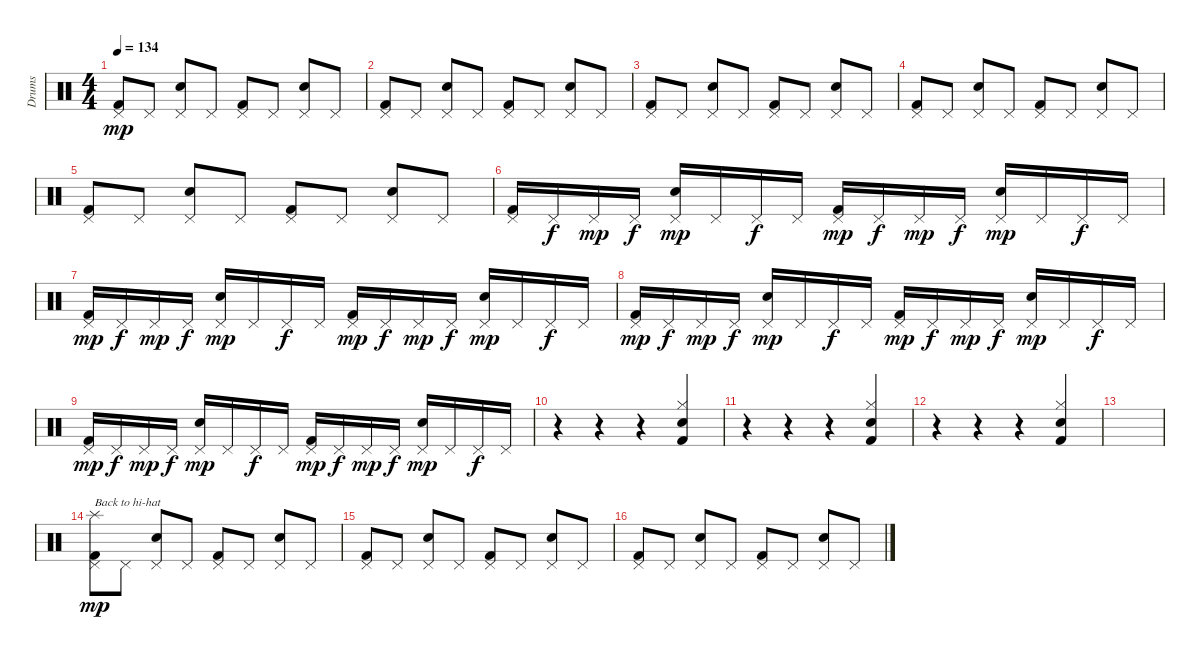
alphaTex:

\track ("Drums" "Drums") {instrument percussion}
\staff {score}
\articulation defaults
\ts (4 4)
\tempo 134
\clef neutral
\ks c
("Pedal Hi-Hat (hit)" "Kick (hit) 2").8{dy mp} "Pedal Hi-Hat (hit)".8 ("Pedal Hi-Hat (hit)" "Electric Snare (hit)").8 "Pedal Hi-Hat (hit)".8 ("Pedal Hi-Hat (hit)" "Kick (hit) 2").8 "Pedal Hi-Hat (hit)".8 ("Pedal Hi-Hat (hit)" "Electric Snare (hit)").8 "Pedal Hi-Hat (hit)".8 |
("Pedal Hi-Hat (hit)" "Kick (hit) 2").8 "Pedal Hi-Hat (hit)".8 ("Pedal Hi-Hat (hit)" "Electric Snare (hit)").8 "Pedal Hi-Hat (hit)".8 ("Pedal Hi-Hat (hit)" "Kick (hit) 2").8 "Pedal Hi-Hat (hit)".8 ("Pedal Hi-Hat (hit)" "Electric Snare (hit)").8 "Pedal Hi-Hat (hit)".8 |
("Pedal Hi-Hat (hit)" "Kick (hit) 2").8 "Pedal Hi-Hat (hit)".8 ("Pedal Hi-Hat (hit)" "Electric Snare (hit)").8 "Pedal Hi-Hat (hit)".8 ("Pedal Hi-Hat (hit)" "Kick (hit) 2").8 "Pedal Hi-Hat (hit)".8 ("Pedal Hi-Hat (hit)" "Electric Snare (hit)").8 "Pedal Hi-Hat (hit)".8 |
("Pedal Hi-Hat (hit)" "Kick (hit) 2").8 "Pedal Hi-Hat (hit)".8 ("Pedal Hi-Hat (hit)" "Electric Snare (hit)").8 "Pedal Hi-Hat (hit)".8 ("Pedal Hi-Hat (hit)" "Kick (hit) 2").8 "Pedal Hi-Hat (hit)".8 ("Pedal Hi-Hat (hit)" "Electric Snare (hit)").8 "Pedal Hi-Hat (hit)".8 |
("Pedal Hi-Hat (hit)" "Kick (hit) 2").8 "Pedal Hi-Hat (hit)".8 ("Pedal Hi-Hat (hit)" "Electric Snare (hit)").8 "Pedal Hi-Hat (hit)".8 ("Pedal Hi-Hat (hit)" "Kick (hit) 2").8 "Pedal Hi-Hat (hit)".8 ("Pedal Hi-Hat (hit)" "Electric Snare (hit)").8 "Pedal Hi-Hat (hit)".8 |
("Pedal Hi-Hat (hit)" "Kick (hit) 2").16 "Pedal Hi-Hat (hit)".16{dy f} "Pedal Hi-Hat (hit)".16{dy mp} "Pedal Hi-Hat (hit)".16{dy f} ("Pedal Hi-Hat (hit)" "Electric Snare (hit)").16{dy mp} "Pedal Hi-Hat (hit)".16 "Pedal Hi-Hat (hit)".16{dy f} "Pedal Hi-Hat (hit)".16 ("Pedal Hi-Hat (hit)" "Kick (hit) 2").16{dy mp} "Pedal Hi-Hat (hit)".16{dy f} "Pedal Hi-Hat (hit)".16{dy mp} "Pedal Hi-Hat (hit)".16{dy f} ("Pedal Hi-Hat (hit)" "Electric Snare (hit)").16{dy mp} "Pedal Hi-Hat (hit)".16 "Pedal Hi-Hat (hit)".16{dy f} "Pedal Hi-Hat (hit)".16 |
("Pedal Hi-Hat (hit)" "Kick (hit) 2").16{dy mp} "Pedal Hi-Hat (hit)".16{dy f} "Pedal Hi-Hat (hit)".16{dy mp} "Pedal Hi-Hat (hit)".16{dy f} ("Pedal Hi-Hat (hit)" "Electric Snare (hit)").16{dy mp} "Pedal Hi-Hat (hit)".16 "Pedal Hi-Hat (hit)".16{dy f} "Pedal Hi-Hat (hit)".16 ("Pedal Hi-Hat (hit)" "Kick (hit) 2").16{dy mp} "Pedal Hi-Hat (hit)".16{dy f} "Pedal Hi-Hat (hit)".16{dy mp} "Pedal Hi-Hat (hit)".16{dy f} ("Pedal Hi-Hat (hit)" "Electric Snare (hit)").16{dy mp} "Pedal Hi-Hat (hit)".16 "Pedal Hi-Hat (hit)".16{dy f} "Pedal Hi-Hat (hit)".16 |
("Pedal Hi-Hat (hit)" "Kick (hit) 2").16{dy mp} "Pedal Hi-Hat (hit)".16{dy f} "Pedal Hi-Hat (hit)".16{dy mp} "Pedal Hi-Hat (hit)".16{dy f} ("Pedal Hi-Hat (hit)" "Electric Snare (hit)").16{dy mp} "Pedal Hi-Hat (hit)".16 "Pedal Hi-Hat (hit)".16{dy f} "Pedal Hi-Hat (hit)".16 ("Pedal Hi-Hat (hit)" "Kick (hit) 2").16{dy mp} "Pedal Hi-Hat (hit)".16{dy f} "Pedal Hi-Hat (hit)".16{dy mp} "Pedal Hi-Hat (hit)".16{dy f} ("Pedal Hi-Hat (hit)" "Electric Snare (hit)").16{dy mp} "Pedal Hi-Hat (hit)".16 "Pedal Hi-Hat (hit)".16{dy f} "Pedal Hi-Hat (hit)".16 |
("Pedal Hi-Hat (hit)" "Kick (hit) 2").16{dy mp} "Pedal Hi-Hat (hit)".16{dy f} "Pedal Hi-Hat (hit)".16{dy mp} "Pedal Hi-Hat (hit)".16{dy f} ("Pedal Hi-Hat (hit)" "Electric Snare (hit)").16{dy mp} "Pedal Hi-Hat (hit)".16 "Pedal Hi-Hat (hit)".16{dy f} "Pedal Hi-Hat (hit)".16 ("Pedal Hi-Hat (hit)" "Kick (hit) 2").16{dy mp} "Pedal Hi-Hat (hit)".16{dy f} "Pedal Hi-Hat (hit)".16{dy mp} "Pedal Hi-Hat (hit)".16{dy f} ("Pedal Hi-Hat (hit)" "Electric Snare (hit)").16{dy mp} "Pedal Hi-Hat (hit)".16 "Pedal Hi-Hat (hit)".16{dy f} "Pedal Hi-Hat (hit)".16 |
r.4 r.4 r.4 ("Hi-Hat (closed)" "Snare (hit) 2" "Kick (hit) 2").4 |
r.4 r.4 r.4 ("Hi-Hat (closed)" "Snare (hit) 2" "Kick (hit) 2").4 |
r.4 r.4 r.4 ("Hi-Hat (closed)" "Snare (hit) 2" "Kick (hit) 2").4 |
|
("Splash (hit)" "Pedal Hi-Hat (hit)" "Kick (hit) 2").8{txt "Back to hi-hat" dy mp} "Pedal Hi-Hat (hit)".8 ("Pedal Hi-Hat (hit)" "Electric Snare (hit)").8 "Pedal Hi-Hat (hit)".8 ("Pedal Hi-Hat (hit)" "Kick (hit) 2").8 "Pedal Hi-Hat (hit)".8 ("Pedal Hi-Hat (hit)" "Electric Snare (hit)").8 "Pedal Hi-Hat (hit)".8 |
("Pedal Hi-Hat (hit)" "Kick (hit) 2").8 "Pedal Hi-Hat (hit)".8 ("Pedal Hi-Hat (hit)" "Electric Snare (hit)").8 "Pedal Hi-Hat (hit)".8 ("Pedal Hi-Hat (hit)" "Kick (hit) 2").8 "Pedal Hi-Hat (hit)".8 ("Pedal Hi-Hat (hit)" "Electric Snare (hit)").8 "Pedal Hi-Hat (hit)".8 |
("Pedal Hi-Hat (hit)" "Kick (hit) 2").8 "Pedal Hi-Hat (hit)".8 ("Pedal Hi-Hat (hit)" "Electric Snare (hit)").8 "Pedal Hi-Hat (hit)".8 ("Pedal Hi-Hat (hit)" "Kick (hit) 2").8 "Pedal Hi-Hat (hit)".8 ("Pedal Hi-Hat (hit)" "Electric Snare (hit)").8 "Pedal Hi-Hat (hit)".8
